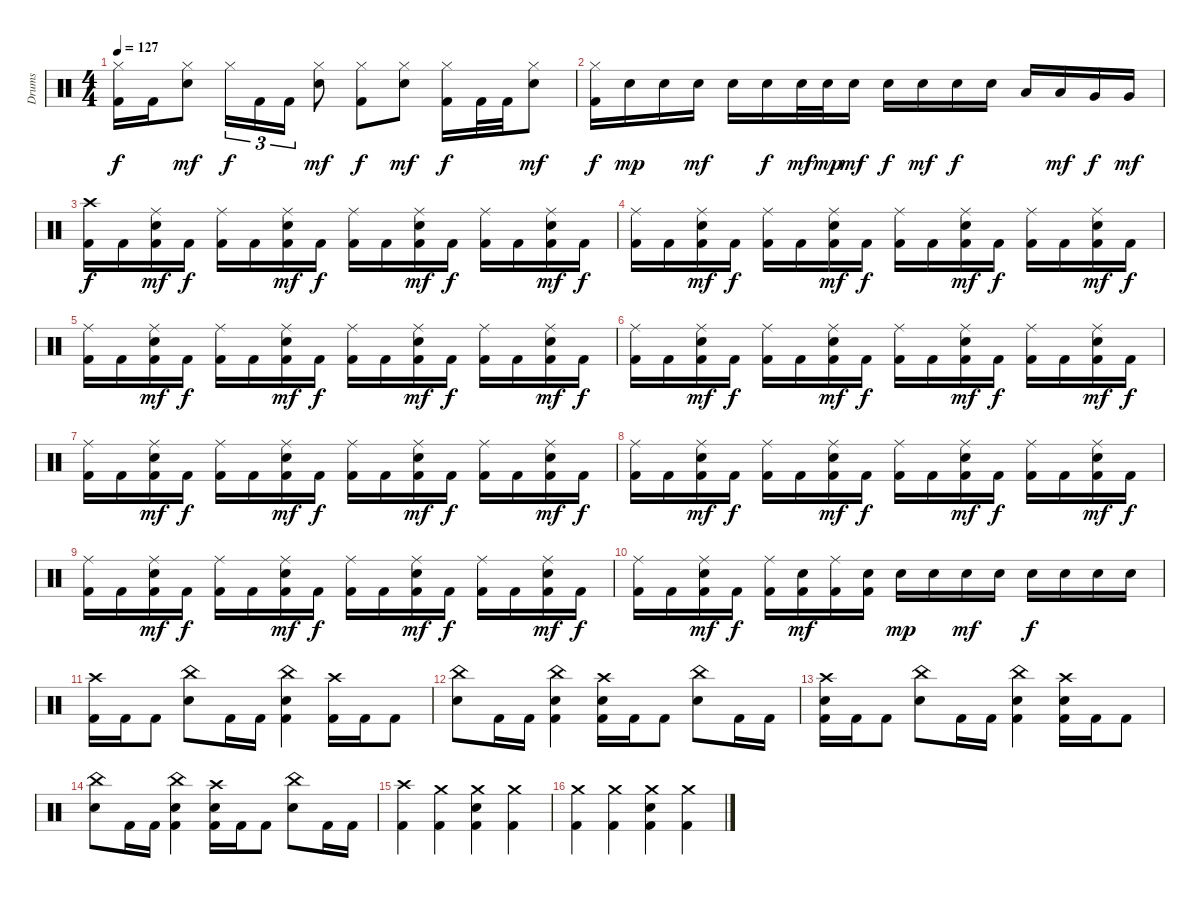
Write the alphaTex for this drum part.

\track ("Drums" "Drums") {instrument percussion}
\staff {score}
\articulation defaults
\ts (4 4)
\tempo 127
\clef neutral
\ks c
("Kick (hit) 2" "Hi-Hat (closed)").16{dy f} "Kick (hit) 2".16 ("Hi-Hat (closed)" "Electric Snare (hit)").8{dy mf} "Hi-Hat (closed)".16{tu (3 2) dy f} "Kick (hit) 2".16{tu (3 2)} "Kick (hit) 2".16{tu (3 2)} ("Hi-Hat (closed)" "Electric Snare (hit)").8{dy mf} ("Kick (hit) 2" "Hi-Hat (closed)").8{dy f} ("Hi-Hat (closed)" "Electric Snare (hit)").8{dy mf} ("Kick (hit) 2" "Hi-Hat (closed)").16{dy f} "Kick (hit) 2".32 "Kick (hit) 2".32 ("Hi-Hat (closed)" "Electric Snare (hit)").8{dy mf} |
("Kick (hit) 2" "Hi-Hat (closed)").16{dy f} "Electric Snare (hit)".16{dy mp} "Electric Snare (hit)".16 "Electric Snare (hit)".16{dy mf} "Electric Snare (hit)".16 "Electric Snare (hit)".16{dy f} "Electric Snare (hit)".32{dy mf} "Electric Snare (hit)".32{dy mp} "Electric Snare (hit)".16{dy mf} "Electric Snare (hit)".16{dy f} "Electric Snare (hit)".16{dy mf} "Electric Snare (hit)".16{dy f} "Electric Snare (hit)".16 "Low Tom (hit)".16 "Low Tom (hit)".16{dy mf} "Very Low Tom (hit)".16{dy f} "Very Low Tom (hit)".16{dy mf} |
("Kick (hit) 2" "Crash high (hit)").16{dy f} "Kick (hit) 2".16 ("Kick (hit) 2" "Ride (middle)" "Electric Snare (hit)").16{dy mf} "Kick (hit) 2".16{dy f} ("Kick (hit) 2" "Ride (middle)").16 "Kick (hit) 2".16 ("Kick (hit) 2" "Ride (middle)" "Electric Snare (hit)").16{dy mf} "Kick (hit) 2".16{dy f} ("Kick (hit) 2" "Ride (middle)").16 "Kick (hit) 2".16 ("Kick (hit) 2" "Ride (middle)" "Electric Snare (hit)").16{dy mf} "Kick (hit) 2".16{dy f} ("Kick (hit) 2" "Ride (middle)").16 "Kick (hit) 2".16 ("Kick (hit) 2" "Ride (middle)" "Electric Snare (hit)").16{dy mf} "Kick (hit) 2".16{dy f} |
("Kick (hit) 2" "Ride (middle)").16 "Kick (hit) 2".16 ("Kick (hit) 2" "Ride (middle)" "Electric Snare (hit)").16{dy mf} "Kick (hit) 2".16{dy f} ("Kick (hit) 2" "Ride (middle)").16 "Kick (hit) 2".16 ("Kick (hit) 2" "Ride (middle)" "Electric Snare (hit)").16{dy mf} "Kick (hit) 2".16{dy f} ("Kick (hit) 2" "Ride (middle)").16 "Kick (hit) 2".16 ("Kick (hit) 2" "Ride (middle)" "Electric Snare (hit)").16{dy mf} "Kick (hit) 2".16{dy f} ("Kick (hit) 2" "Ride (middle)").16 "Kick (hit) 2".16 ("Kick (hit) 2" "Ride (middle)" "Electric Snare (hit)").16{dy mf} "Kick (hit) 2".16{dy f} |
("Kick (hit) 2" "Ride (middle)").16 "Kick (hit) 2".16 ("Kick (hit) 2" "Ride (middle)" "Electric Snare (hit)").16{dy mf} "Kick (hit) 2".16{dy f} ("Kick (hit) 2" "Ride (middle)").16 "Kick (hit) 2".16 ("Kick (hit) 2" "Ride (middle)" "Electric Snare (hit)").16{dy mf} "Kick (hit) 2".16{dy f} ("Kick (hit) 2" "Ride (middle)").16 "Kick (hit) 2".16 ("Kick (hit) 2" "Ride (middle)" "Electric Snare (hit)").16{dy mf} "Kick (hit) 2".16{dy f} ("Kick (hit) 2" "Ride (middle)").16 "Kick (hit) 2".16 ("Kick (hit) 2" "Ride (middle)" "Electric Snare (hit)").16{dy mf} "Kick (hit) 2".16{dy f} |
("Kick (hit) 2" "Ride (middle)").16 "Kick (hit) 2".16 ("Kick (hit) 2" "Ride (middle)" "Electric Snare (hit)").16{dy mf} "Kick (hit) 2".16{dy f} ("Kick (hit) 2" "Ride (middle)").16 "Kick (hit) 2".16 ("Kick (hit) 2" "Ride (middle)" "Electric Snare (hit)").16{dy mf} "Kick (hit) 2".16{dy f} ("Kick (hit) 2" "Ride (middle)").16 "Kick (hit) 2".16 ("Kick (hit) 2" "Ride (middle)" "Electric Snare (hit)").16{dy mf} "Kick (hit) 2".16{dy f} ("Kick (hit) 2" "Ride (middle)").16 "Kick (hit) 2".16 ("Kick (hit) 2" "Ride (middle)" "Electric Snare (hit)").16{dy mf} "Kick (hit) 2".16{dy f} |
("Kick (hit) 2" "Ride (middle)").16 "Kick (hit) 2".16 ("Kick (hit) 2" "Ride (middle)" "Electric Snare (hit)").16{dy mf} "Kick (hit) 2".16{dy f} ("Kick (hit) 2" "Ride (middle)").16 "Kick (hit) 2".16 ("Kick (hit) 2" "Ride (middle)" "Electric Snare (hit)").16{dy mf} "Kick (hit) 2".16{dy f} ("Kick (hit) 2" "Ride (middle)").16 "Kick (hit) 2".16 ("Kick (hit) 2" "Ride (middle)" "Electric Snare (hit)").16{dy mf} "Kick (hit) 2".16{dy f} ("Kick (hit) 2" "Ride (middle)").16 "Kick (hit) 2".16 ("Kick (hit) 2" "Ride (middle)" "Electric Snare (hit)").16{dy mf} "Kick (hit) 2".16{dy f} |
("Kick (hit) 2" "Ride (middle)").16 "Kick (hit) 2".16 ("Kick (hit) 2" "Ride (middle)" "Electric Snare (hit)").16{dy mf} "Kick (hit) 2".16{dy f} ("Kick (hit) 2" "Ride (middle)").16 "Kick (hit) 2".16 ("Kick (hit) 2" "Ride (middle)" "Electric Snare (hit)").16{dy mf} "Kick (hit) 2".16{dy f} ("Kick (hit) 2" "Ride (middle)").16 "Kick (hit) 2".16 ("Kick (hit) 2" "Ride (middle)" "Electric Snare (hit)").16{dy mf} "Kick (hit) 2".16{dy f} ("Kick (hit) 2" "Ride (middle)").16 "Kick (hit) 2".16 ("Kick (hit) 2" "Ride (middle)" "Electric Snare (hit)").16{dy mf} "Kick (hit) 2".16{dy f} |
("Kick (hit) 2" "Ride (middle)").16 "Kick (hit) 2".16 ("Kick (hit) 2" "Ride (middle)" "Electric Snare (hit)").16{dy mf} "Kick (hit) 2".16{dy f} ("Kick (hit) 2" "Ride (middle)").16 "Kick (hit) 2".16 ("Kick (hit) 2" "Ride (middle)" "Electric Snare (hit)").16{dy mf} "Kick (hit) 2".16{dy f} ("Kick (hit) 2" "Ride (middle)").16 "Kick (hit) 2".16 ("Kick (hit) 2" "Ride (middle)" "Electric Snare (hit)").16{dy mf} "Kick (hit) 2".16{dy f} ("Kick (hit) 2" "Ride (middle)").16 "Kick (hit) 2".16 ("Kick (hit) 2" "Ride (middle)" "Electric Snare (hit)").16{dy mf} "Kick (hit) 2".16{dy f} |
("Kick (hit) 2" "Ride (middle)").16 "Kick (hit) 2".16 ("Kick (hit) 2" "Ride (middle)" "Electric Snare (hit)").16{dy mf} "Kick (hit) 2".16{dy f} ("Kick (hit) 2" "Ride (middle)").16 ("Kick (hit) 2" "Electric Snare (hit)").16{dy mf} ("Kick (hit) 2" "Ride (middle)").16 ("Kick (hit) 2" "Electric Snare (hit)").16 "Electric Snare (hit)".16{dy mp} "Electric Snare (hit)".16 "Electric Snare (hit)".16{dy mf} "Electric Snare (hit)".16 "Electric Snare (hit)".16{dy f} "Electric Snare (hit)".16 "Electric Snare (hit)".16 "Electric Snare (hit)".16 |
("Kick (hit) 2" "Crash high (hit)").16 "Kick (hit) 2".16 "Kick (hit) 2".8 ("China (hit)" "Electric Snare (hit)").8 "Kick (hit) 2".16 "Kick (hit) 2".16 ("Kick (hit) 2" "China (hit)" "Electric Snare (hit)").4 ("Kick (hit) 2" "Crash high (hit)").16 "Kick (hit) 2".16 "Kick (hit) 2".8 |
("China (hit)" "Electric Snare (hit)").8 "Kick (hit) 2".16 "Kick (hit) 2".16 ("Kick (hit) 2" "China (hit)" "Electric Snare (hit)").4 ("Kick (hit) 2" "Crash high (hit)" "Electric Snare (hit)").16 "Kick (hit) 2".16 "Kick (hit) 2".8 ("China (hit)" "Electric Snare (hit)").8 "Kick (hit) 2".16 "Kick (hit) 2".16 |
("Kick (hit) 2" "Crash high (hit)" "Electric Snare (hit)").16 "Kick (hit) 2".16 "Kick (hit) 2".8 ("China (hit)" "Electric Snare (hit)").8 "Kick (hit) 2".16 "Kick (hit) 2".16 ("Kick (hit) 2" "China (hit)" "Electric Snare (hit)").4 ("Kick (hit) 2" "Crash high (hit)" "Electric Snare (hit)").16 "Kick (hit) 2".16 "Kick (hit) 2".8 |
("China (hit)" "Electric Snare (hit)").8 "Kick (hit) 2".16 "Kick (hit) 2".16 ("Kick (hit) 2" "China (hit)" "Electric Snare (hit)").4 ("Kick (hit) 2" "Crash high (hit)" "Electric Snare (hit)").16 "Kick (hit) 2".16 "Kick (hit) 2".8 ("China (hit)" "Electric Snare (hit)").8 "Kick (hit) 2".16 "Kick (hit) 2".16 |
("Kick (hit) 2" "Crash high (hit)").4 ("Kick (hit) 2" "Crash medium (hit)").4 ("Kick (hit) 2" "Crash medium (hit)" "Electric Snare (hit)").4 ("Kick (hit) 2" "Crash medium (hit)").4 |
("Kick (hit) 2" "Crash medium (hit)").4 ("Kick (hit) 2" "Crash medium (hit)").4 ("Kick (hit) 2" "Crash medium (hit)" "Electric Snare (hit)").4 ("Kick (hit) 2" "Crash medium (hit)").4
